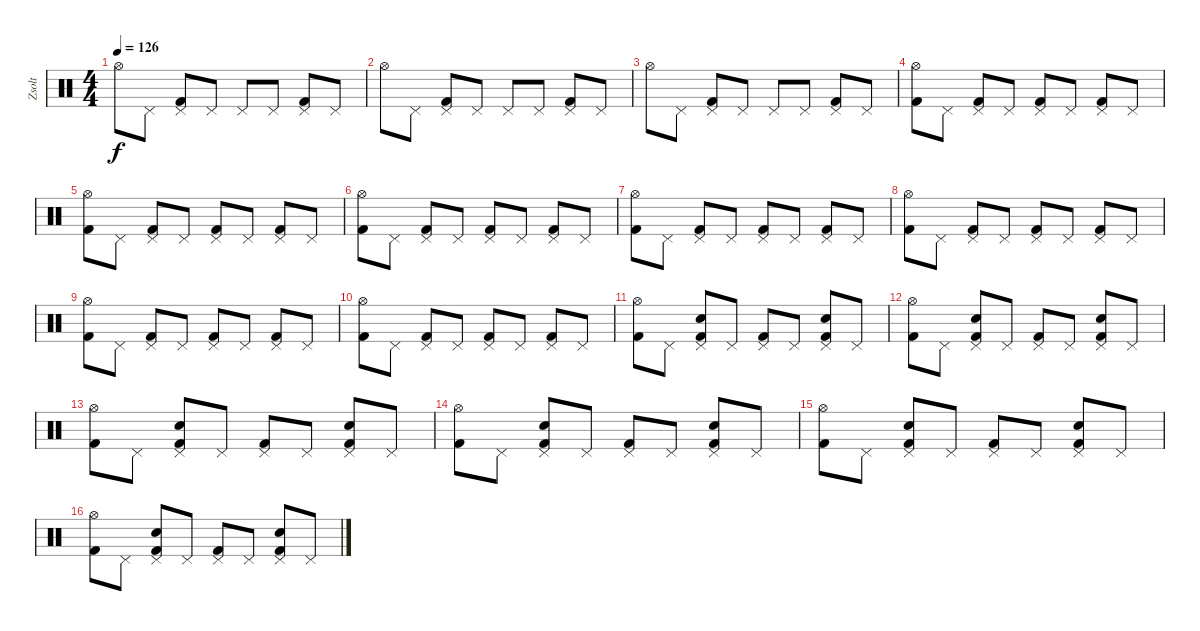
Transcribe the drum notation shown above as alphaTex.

\track ("Zsolt" "Zsolt") {instrument percussion}
\staff {score}
\articulation defaults
\ts (4 4)
\tempo 126
\clef neutral
\ks c "Hi-Hat (open)".8{dy f} "Pedal Hi-Hat (hit)".8
("Pedal Hi-Hat (hit)" "Kick (hit) 2").8 "Pedal Hi-Hat (hit)".8 "Pedal Hi-Hat (hit)".8 "Pedal Hi-Hat (hit)".8 ("Pedal Hi-Hat (hit)" "Kick (hit) 2").8 "Pedal Hi-Hat (hit)".8 |
"Hi-Hat (open)".8 "Pedal Hi-Hat (hit)".8 ("Pedal Hi-Hat (hit)" "Kick (hit) 2").8 "Pedal Hi-Hat (hit)".8 "Pedal Hi-Hat (hit)".8 "Pedal Hi-Hat (hit)".8 ("Pedal Hi-Hat (hit)" "Kick (hit) 2").8 "Pedal Hi-Hat (hit)".8 |
"Hi-Hat (open)".8 "Pedal Hi-Hat (hit)".8 ("Pedal Hi-Hat (hit)" "Kick (hit) 2").8 "Pedal Hi-Hat (hit)".8 "Pedal Hi-Hat (hit)".8 "Pedal Hi-Hat (hit)".8 ("Pedal Hi-Hat (hit)" "Kick (hit) 2").8 "Pedal Hi-Hat (hit)".8 |
("Hi-Hat (open)" "Kick (hit) 2").8 "Pedal Hi-Hat (hit)".8 ("Pedal Hi-Hat (hit)" "Kick (hit) 2").8 "Pedal Hi-Hat (hit)".8 ("Pedal Hi-Hat (hit)" "Kick (hit) 2").8 "Pedal Hi-Hat (hit)".8 ("Pedal Hi-Hat (hit)" "Kick (hit) 2").8 "Pedal Hi-Hat (hit)".8 |
("Hi-Hat (open)" "Kick (hit) 2").8 "Pedal Hi-Hat (hit)".8 ("Pedal Hi-Hat (hit)" "Kick (hit) 2").8 "Pedal Hi-Hat (hit)".8 ("Pedal Hi-Hat (hit)" "Kick (hit) 2").8 "Pedal Hi-Hat (hit)".8 ("Pedal Hi-Hat (hit)" "Kick (hit) 2").8 "Pedal Hi-Hat (hit)".8 |
("Hi-Hat (open)" "Kick (hit) 2").8 "Pedal Hi-Hat (hit)".8 ("Pedal Hi-Hat (hit)" "Kick (hit) 2").8 "Pedal Hi-Hat (hit)".8 ("Pedal Hi-Hat (hit)" "Kick (hit) 2").8 "Pedal Hi-Hat (hit)".8 ("Pedal Hi-Hat (hit)" "Kick (hit) 2").8 "Pedal Hi-Hat (hit)".8 |
("Hi-Hat (open)" "Kick (hit) 2").8 "Pedal Hi-Hat (hit)".8 ("Pedal Hi-Hat (hit)" "Kick (hit) 2").8 "Pedal Hi-Hat (hit)".8 ("Pedal Hi-Hat (hit)" "Kick (hit) 2").8 "Pedal Hi-Hat (hit)".8 ("Pedal Hi-Hat (hit)" "Kick (hit) 2").8 "Pedal Hi-Hat (hit)".8 |
("Hi-Hat (open)" "Kick (hit) 2").8 "Pedal Hi-Hat (hit)".8 ("Pedal Hi-Hat (hit)" "Kick (hit) 2").8 "Pedal Hi-Hat (hit)".8 ("Pedal Hi-Hat (hit)" "Kick (hit) 2").8 "Pedal Hi-Hat (hit)".8 ("Pedal Hi-Hat (hit)" "Kick (hit) 2").8 "Pedal Hi-Hat (hit)".8 |
("Hi-Hat (open)" "Kick (hit) 2").8 "Pedal Hi-Hat (hit)".8 ("Pedal Hi-Hat (hit)" "Kick (hit) 2").8 "Pedal Hi-Hat (hit)".8 ("Pedal Hi-Hat (hit)" "Kick (hit) 2").8 "Pedal Hi-Hat (hit)".8 ("Pedal Hi-Hat (hit)" "Kick (hit) 2").8 "Pedal Hi-Hat (hit)".8 |
("Hi-Hat (open)" "Kick (hit) 2").8 "Pedal Hi-Hat (hit)".8 ("Pedal Hi-Hat (hit)" "Kick (hit) 2").8 "Pedal Hi-Hat (hit)".8 ("Pedal Hi-Hat (hit)" "Kick (hit) 2").8 "Pedal Hi-Hat (hit)".8 ("Pedal Hi-Hat (hit)" "Kick (hit) 2").8 "Pedal Hi-Hat (hit)".8 |
("Hi-Hat (open)" "Kick (hit) 2").8 "Pedal Hi-Hat (hit)".8 ("Pedal Hi-Hat (hit)" "Snare (hit) 2" "Kick (hit) 2").8 "Pedal Hi-Hat (hit)".8 ("Pedal Hi-Hat (hit)" "Kick (hit) 2").8 "Pedal Hi-Hat (hit)".8 ("Pedal Hi-Hat (hit)" "Snare (hit) 2" "Kick (hit) 2").8 "Pedal Hi-Hat (hit)".8 |
("Hi-Hat (open)" "Kick (hit) 2").8 "Pedal Hi-Hat (hit)".8 ("Pedal Hi-Hat (hit)" "Snare (hit) 2" "Kick (hit) 2").8 "Pedal Hi-Hat (hit)".8 ("Pedal Hi-Hat (hit)" "Kick (hit) 2").8 "Pedal Hi-Hat (hit)".8 ("Pedal Hi-Hat (hit)" "Snare (hit) 2" "Kick (hit) 2").8 "Pedal Hi-Hat (hit)".8 |
("Hi-Hat (open)" "Kick (hit) 2").8 "Pedal Hi-Hat (hit)".8 ("Pedal Hi-Hat (hit)" "Snare (hit) 2" "Kick (hit) 2").8 "Pedal Hi-Hat (hit)".8 ("Pedal Hi-Hat (hit)" "Kick (hit) 2").8 "Pedal Hi-Hat (hit)".8 ("Pedal Hi-Hat (hit)" "Snare (hit) 2" "Kick (hit) 2").8 "Pedal Hi-Hat (hit)".8 |
("Hi-Hat (open)" "Kick (hit) 2").8 "Pedal Hi-Hat (hit)".8 ("Pedal Hi-Hat (hit)" "Snare (hit) 2" "Kick (hit) 2").8 "Pedal Hi-Hat (hit)".8 ("Pedal Hi-Hat (hit)" "Kick (hit) 2").8 "Pedal Hi-Hat (hit)".8 ("Pedal Hi-Hat (hit)" "Snare (hit) 2" "Kick (hit) 2").8 "Pedal Hi-Hat (hit)".8 |
("Hi-Hat (open)" "Kick (hit) 2").8 "Pedal Hi-Hat (hit)".8 ("Pedal Hi-Hat (hit)" "Snare (hit) 2" "Kick (hit) 2").8 "Pedal Hi-Hat (hit)".8 ("Pedal Hi-Hat (hit)" "Kick (hit) 2").8 "Pedal Hi-Hat (hit)".8 ("Pedal Hi-Hat (hit)" "Snare (hit) 2" "Kick (hit) 2").8 "Pedal Hi-Hat (hit)".8 |
("Hi-Hat (open)" "Kick (hit) 2").8 "Pedal Hi-Hat (hit)".8 ("Pedal Hi-Hat (hit)" "Snare (hit) 2" "Kick (hit) 2").8 "Pedal Hi-Hat (hit)".8 ("Pedal Hi-Hat (hit)" "Kick (hit) 2").8 "Pedal Hi-Hat (hit)".8 ("Pedal Hi-Hat (hit)" "Snare (hit) 2" "Kick (hit) 2").8 "Pedal Hi-Hat (hit)".8
